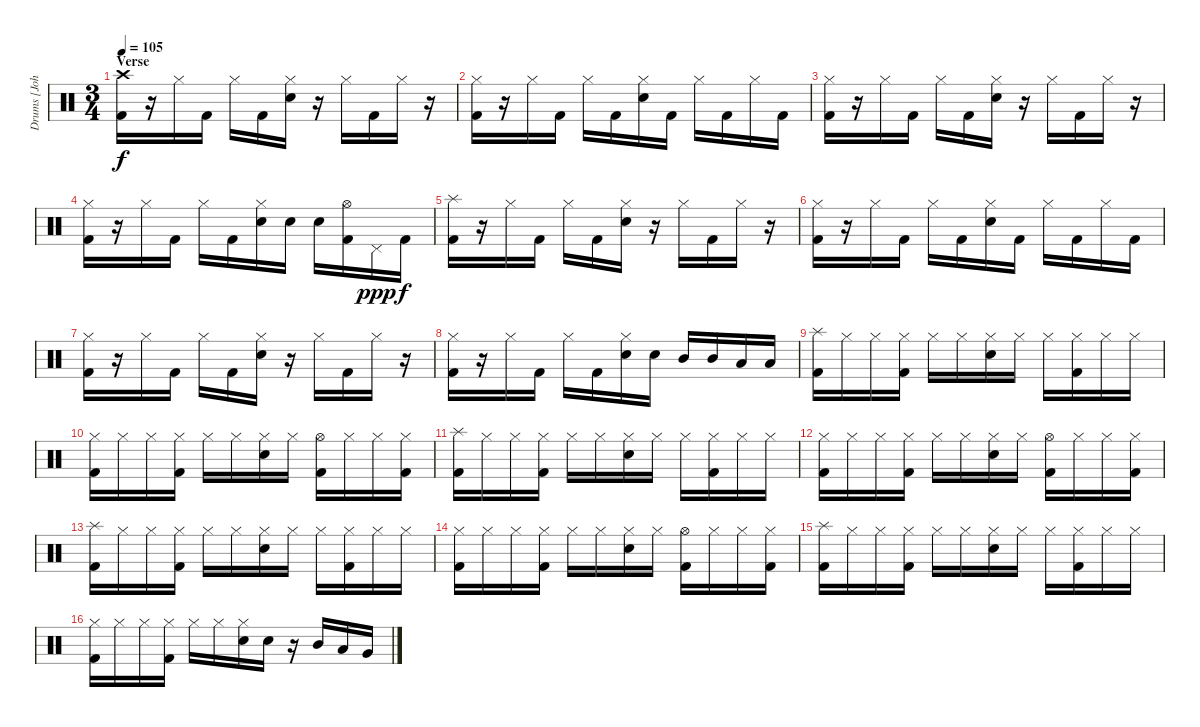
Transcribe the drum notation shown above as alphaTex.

\track ("Drums [John Otto]" "Drums [Joh") {instrument percussion}
\staff {score}
\articulation defaults
\ts (3 4)
\section ("" "Verse")
\tempo 105
\clef neutral
\ks c
("Crash high (hit)" "Kick (hit) 2").16{dy f} r.16 "Hi-Hat (closed)".16 "Kick (hit) 2".16 "Hi-Hat (closed)".16 "Kick (hit) 2".16 ("Hi-Hat (closed)" "Electric Snare (hit)").16 r.16 "Hi-Hat (closed)".16 "Kick (hit) 2".16 "Hi-Hat (closed)".16 r.16 |
("Hi-Hat (closed)" "Kick (hit) 2").16 r.16 "Hi-Hat (closed)".16 "Kick (hit) 2".16 "Hi-Hat (closed)".16 "Kick (hit) 2".16 ("Hi-Hat (closed)" "Electric Snare (hit)").16 "Kick (hit) 2".16 "Hi-Hat (closed)".16 "Kick (hit) 2".16 "Hi-Hat (closed)".16 "Kick (hit) 2".16 |
("Hi-Hat (closed)" "Kick (hit) 2").16 r.16 "Hi-Hat (closed)".16 "Kick (hit) 2".16 "Hi-Hat (closed)".16 "Kick (hit) 2".16 ("Hi-Hat (closed)" "Electric Snare (hit)").16 r.16 "Hi-Hat (closed)".16 "Kick (hit) 2".16 "Hi-Hat (closed)".16 r.16 |
("Hi-Hat (closed)" "Kick (hit) 2").16 r.16 "Hi-Hat (closed)".16 "Kick (hit) 2".16 "Hi-Hat (closed)".16 "Kick (hit) 2".16 ("Hi-Hat (closed)" "Electric Snare (hit)").16 "Electric Snare (hit)".16 "Electric Snare (hit)".16 ("Hi-Hat (open)" "Kick (hit) 2").16 "Pedal Hi-Hat (hit)".16{dy ppp} "Kick (hit) 2".16{dy f} |
("Splash (hit)" "Kick (hit) 2").16 r.16 "Hi-Hat (closed)".16 "Kick (hit) 2".16 "Hi-Hat (closed)".16 "Kick (hit) 2".16 ("Hi-Hat (closed)" "Electric Snare (hit)").16 r.16 "Hi-Hat (closed)".16 "Kick (hit) 2".16 "Hi-Hat (closed)".16 r.16 |
("Hi-Hat (closed)" "Kick (hit) 2").16 r.16 "Hi-Hat (closed)".16 "Kick (hit) 2".16 "Hi-Hat (closed)".16 "Kick (hit) 2".16 ("Hi-Hat (closed)" "Electric Snare (hit)").16 "Kick (hit) 2".16 "Hi-Hat (closed)".16 "Kick (hit) 2".16 "Hi-Hat (closed)".16 "Kick (hit) 2".16 |
("Hi-Hat (closed)" "Kick (hit) 2").16 r.16 "Hi-Hat (closed)".16 "Kick (hit) 2".16 "Hi-Hat (closed)".16 "Kick (hit) 2".16 ("Hi-Hat (closed)" "Electric Snare (hit)").16 r.16 "Hi-Hat (closed)".16 "Kick (hit) 2".16 "Hi-Hat (closed)".16 r.16 |
("Hi-Hat (closed)" "Kick (hit) 2").16 r.16 "Hi-Hat (closed)".16 "Kick (hit) 2".16 "Hi-Hat (closed)".16 "Kick (hit) 2".16 ("Hi-Hat (closed)" "Electric Snare (hit)").16 "Electric Snare (hit)".16 "Mid Tom (hit)".16 "Mid Tom (hit)".16 "Low Tom (hit)".16 "Low Tom (hit)".16 |
("Splash (hit)" "Kick (hit) 2").16 "Hi-Hat (closed)".16 "Hi-Hat (closed)".16 ("Hi-Hat (closed)" "Kick (hit) 2").16 "Hi-Hat (closed)".16 "Hi-Hat (closed)".16 ("Hi-Hat (closed)" "Electric Snare (hit)").16 "Hi-Hat (closed)".16 "Hi-Hat (closed)".16 ("Hi-Hat (closed)" "Kick (hit) 2").16 "Hi-Hat (closed)".16 "Hi-Hat (closed)".16 |
("Hi-Hat (closed)" "Kick (hit) 2").16 "Hi-Hat (closed)".16 "Hi-Hat (closed)".16 ("Hi-Hat (closed)" "Kick (hit) 2").16 "Hi-Hat (closed)".16 "Hi-Hat (closed)".16 ("Hi-Hat (closed)" "Electric Snare (hit)").16 "Hi-Hat (closed)".16 ("Hi-Hat (open)" "Kick (hit) 2").16 "Hi-Hat (closed)".16 "Hi-Hat (closed)".16 ("Hi-Hat (closed)" "Kick (hit) 2").16 |
("Splash (hit)" "Kick (hit) 2").16 "Hi-Hat (closed)".16 "Hi-Hat (closed)".16 ("Hi-Hat (closed)" "Kick (hit) 2").16 "Hi-Hat (closed)".16 "Hi-Hat (closed)".16 ("Hi-Hat (closed)" "Electric Snare (hit)").16 "Hi-Hat (closed)".16 "Hi-Hat (closed)".16 ("Hi-Hat (closed)" "Kick (hit) 2").16 "Hi-Hat (closed)".16 "Hi-Hat (closed)".16 |
("Hi-Hat (closed)" "Kick (hit) 2").16 "Hi-Hat (closed)".16 "Hi-Hat (closed)".16 ("Hi-Hat (closed)" "Kick (hit) 2").16 "Hi-Hat (closed)".16 "Hi-Hat (closed)".16 ("Hi-Hat (closed)" "Electric Snare (hit)").16 "Hi-Hat (closed)".16 ("Hi-Hat (open)" "Kick (hit) 2").16 "Hi-Hat (closed)".16 "Hi-Hat (closed)".16 ("Hi-Hat (closed)" "Kick (hit) 2").16 |
("Splash (hit)" "Kick (hit) 2").16 "Hi-Hat (closed)".16 "Hi-Hat (closed)".16 ("Hi-Hat (closed)" "Kick (hit) 2").16 "Hi-Hat (closed)".16 "Hi-Hat (closed)".16 ("Hi-Hat (closed)" "Electric Snare (hit)").16 "Hi-Hat (closed)".16 "Hi-Hat (closed)".16 ("Hi-Hat (closed)" "Kick (hit) 2").16 "Hi-Hat (closed)".16 "Hi-Hat (closed)".16 |
("Hi-Hat (closed)" "Kick (hit) 2").16 "Hi-Hat (closed)".16 "Hi-Hat (closed)".16 ("Hi-Hat (closed)" "Kick (hit) 2").16 "Hi-Hat (closed)".16 "Hi-Hat (closed)".16 ("Hi-Hat (closed)" "Electric Snare (hit)").16 "Hi-Hat (closed)".16 ("Hi-Hat (open)" "Kick (hit) 2").16 "Hi-Hat (closed)".16 "Hi-Hat (closed)".16 ("Hi-Hat (closed)" "Kick (hit) 2").16 |
("Splash (hit)" "Kick (hit) 2").16 "Hi-Hat (closed)".16 "Hi-Hat (closed)".16 ("Hi-Hat (closed)" "Kick (hit) 2").16 "Hi-Hat (closed)".16 "Hi-Hat (closed)".16 ("Hi-Hat (closed)" "Electric Snare (hit)").16 "Hi-Hat (closed)".16 "Hi-Hat (closed)".16 ("Hi-Hat (closed)" "Kick (hit) 2").16 "Hi-Hat (closed)".16 "Hi-Hat (closed)".16 |
("Hi-Hat (closed)" "Kick (hit) 2").16 "Hi-Hat (closed)".16 "Hi-Hat (closed)".16 ("Hi-Hat (closed)" "Kick (hit) 2").16 "Hi-Hat (closed)".16 "Hi-Hat (closed)".16 ("Hi-Hat (closed)" "Electric Snare (hit)").16 "Electric Snare (hit)".16 r.16 "Mid Tom (hit)".16 "Low Tom (hit)".16 "Very Low Tom (hit)".16
